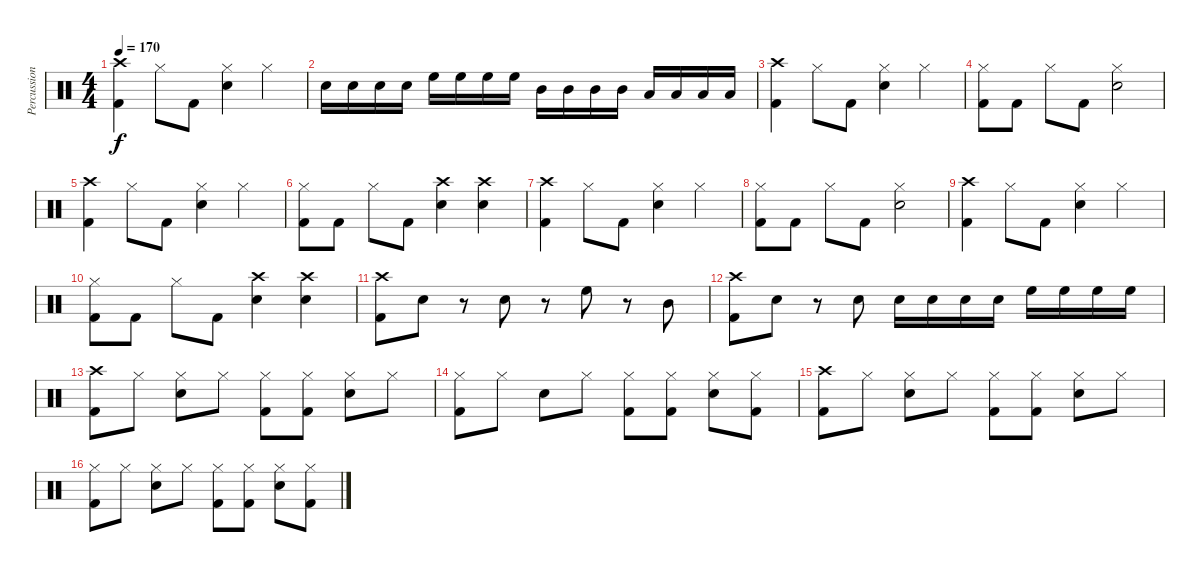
\track ("Percussions" "Percussion") {instrument percussion}
\staff {score}
\articulation defaults
\ts (4 4)
\tempo 170
\clef neutral
\ks c
("Crash high (hit)" "Kick (hit) 2").4{dy f} "Hi-Hat (closed)".8 "Kick (hit) 2".8 ("Snare (hit) 2" "Hi-Hat (closed)").4 "Hi-Hat (closed)".4 |
"Snare (hit) 2".16 "Snare (hit) 2".16 "Snare (hit) 2".16 "Snare (hit) 2".16 "High Floor Tom (hit)".16 "High Floor Tom (hit)".16 "High Floor Tom (hit)".16 "High Floor Tom (hit)".16 "Mid Tom (hit)".16 "Mid Tom (hit)".16 "Mid Tom (hit)".16 "Mid Tom (hit)".16 "Low Floor Tom (hit)".16 "Low Floor Tom (hit)".16 "Low Floor Tom (hit)".16 "Low Floor Tom (hit)".16 |
("Crash high (hit)" "Kick (hit) 2").4 "Hi-Hat (closed)".8 "Kick (hit) 2".8 ("Snare (hit) 2" "Hi-Hat (closed)").4 "Hi-Hat (closed)".4 |
("Hi-Hat (closed)" "Kick (hit) 2").8 "Kick (hit) 2".8 "Hi-Hat (closed)".8 "Kick (hit) 2".8 ("Hi-Hat (closed)" "Snare (hit) 2").2 |
("Crash high (hit)" "Kick (hit) 2").4 "Hi-Hat (closed)".8 "Kick (hit) 2".8 ("Snare (hit) 2" "Hi-Hat (closed)").4 "Hi-Hat (closed)".4 |
("Hi-Hat (closed)" "Kick (hit) 2").8 "Kick (hit) 2".8 "Hi-Hat (closed)".8 "Kick (hit) 2".8 ("Crash high (hit)" "Snare (hit) 2").4 ("Crash high (hit)" "Snare (hit) 2").4 |
("Crash high (hit)" "Kick (hit) 2").4 "Hi-Hat (closed)".8 "Kick (hit) 2".8 ("Snare (hit) 2" "Hi-Hat (closed)").4 "Hi-Hat (closed)".4 |
("Hi-Hat (closed)" "Kick (hit) 2").8 "Kick (hit) 2".8 "Hi-Hat (closed)".8 "Kick (hit) 2".8 ("Hi-Hat (closed)" "Snare (hit) 2").2 |
("Crash high (hit)" "Kick (hit) 2").4 "Hi-Hat (closed)".8 "Kick (hit) 2".8 ("Snare (hit) 2" "Hi-Hat (closed)").4 "Hi-Hat (closed)".4 |
("Hi-Hat (closed)" "Kick (hit) 2").8 "Kick (hit) 2".8 "Hi-Hat (closed)".8 "Kick (hit) 2".8 ("Crash high (hit)" "Snare (hit) 2").4 ("Crash high (hit)" "Snare (hit) 2").4 |
("Crash high (hit)" "Kick (hit) 2").8 "Snare (hit) 2".8 r.8 "Snare (hit) 2".8 r.8 "High Floor Tom (hit)".8 r.8 "Mid Tom (hit)".8 |
("Crash high (hit)" "Kick (hit) 2").8 "Snare (hit) 2".8 r.8 "Snare (hit) 2".8 "Snare (hit) 2".16 "Snare (hit) 2".16 "Snare (hit) 2".16 "Snare (hit) 2".16 "High Floor Tom (hit)".16 "High Floor Tom (hit)".16 "High Floor Tom (hit)".16 "High Floor Tom (hit)".16 |
("Crash high (hit)" "Kick (hit) 2").8 "Hi-Hat (closed)".8 ("Hi-Hat (closed)" "Snare (hit) 2").8 "Hi-Hat (closed)".8 ("Hi-Hat (closed)" "Kick (hit) 2").8 ("Hi-Hat (closed)" "Kick (hit) 2").8 ("Hi-Hat (closed)" "Snare (hit) 2").8 "Hi-Hat (closed)".8 |
("Kick (hit) 2" "Hi-Hat (closed)").8 "Hi-Hat (closed)".8 "Snare (hit) 2".8 "Hi-Hat (closed)".8 ("Kick (hit) 2" "Hi-Hat (closed)").8 ("Kick (hit) 2" "Hi-Hat (closed)").8 ("Snare (hit) 2" "Hi-Hat (closed)").8 ("Kick (hit) 2" "Hi-Hat (closed)").8 |
("Kick (hit) 2" "Crash high (hit)").8 "Hi-Hat (closed)".8 ("Snare (hit) 2" "Hi-Hat (closed)").8 "Hi-Hat (closed)".8 ("Kick (hit) 2" "Hi-Hat (closed)").8 ("Kick (hit) 2" "Hi-Hat (closed)").8 ("Snare (hit) 2" "Hi-Hat (closed)").8 "Hi-Hat (closed)".8 |
("Kick (hit) 2" "Hi-Hat (closed)").8 "Hi-Hat (closed)".8 ("Snare (hit) 2" "Hi-Hat (closed)").8 "Hi-Hat (closed)".8 ("Kick (hit) 2" "Hi-Hat (closed)").8 ("Kick (hit) 2" "Hi-Hat (closed)").8 ("Snare (hit) 2" "Hi-Hat (closed)").8 ("Kick (hit) 2" "Hi-Hat (closed)").8
